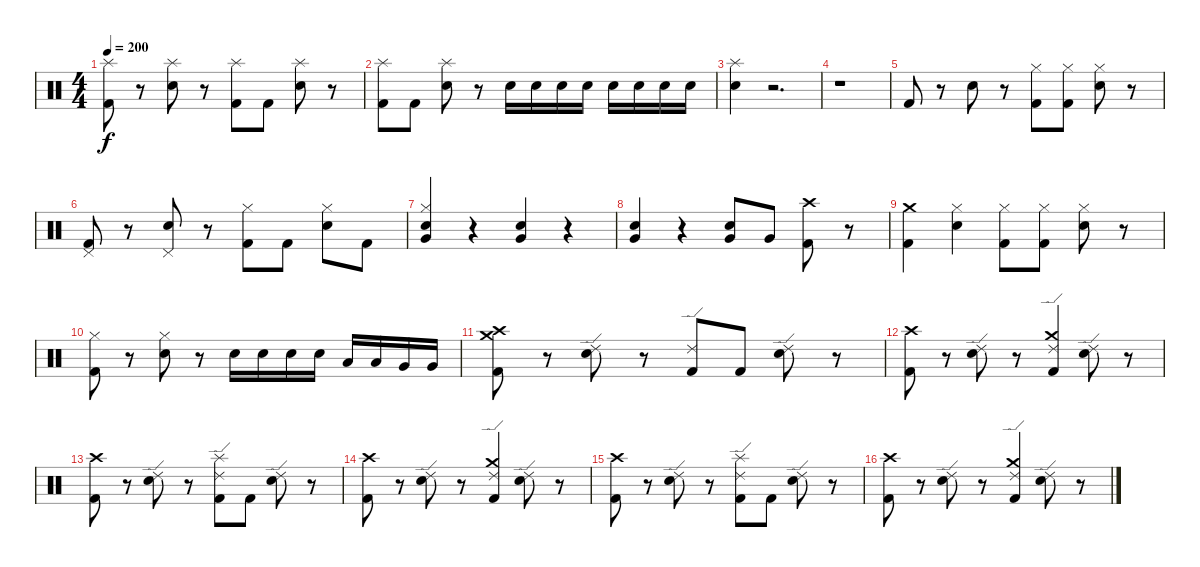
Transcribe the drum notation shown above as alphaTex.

\track "" {instrument percussion}
\staff {score}
\articulation defaults
\ts (4 4)
\tempo 200
\clef neutral
\ks c
("Splash (hit)" "Kick (hit) 2").8{dy f} r.8 ("Splash (hit)" "Electric Snare (hit)").8 r.8 ("Splash (hit)" "Kick (hit) 2").8 "Kick (hit) 2".8 ("Splash (hit)" "Electric Snare (hit)").8 r.8 |
("Splash (hit)" "Kick (hit) 2").8 "Kick (hit) 2".8 ("Splash (hit)" "Electric Snare (hit)").8 r.8 "Electric Snare (hit)".16 "Electric Snare (hit)".16 "Electric Snare (hit)".16 "Electric Snare (hit)".16 "Electric Snare (hit)".16 "Electric Snare (hit)".16 "Electric Snare (hit)".16 "Electric Snare (hit)".16 |
("Splash (hit)" "Electric Snare (hit)").4 r.2{d} |
r.1 |
"Kick (hit) 2".8 r.8 "Electric Snare (hit)".8 r.8 ("Hi-Hat (closed)" "Kick (hit) 2").8 ("Hi-Hat (closed)" "Kick (hit) 2").8 ("Hi-Hat (closed)" "Electric Snare (hit)").8 r.8 |
("Pedal Hi-Hat (hit)" "Kick (hit) 2").8 r.8 ("Pedal Hi-Hat (hit)" "Electric Snare (hit)").8 r.8 ("Hi-Hat (closed)" "Kick (hit) 2").8 "Kick (hit) 2".8 ("Hi-Hat (closed)" "Electric Snare (hit)").8 "Kick (hit) 2".8 |
("Very Low Tom (hit)" "Hi-Hat (closed)" "Electric Snare (hit)").4 r.4 ("Very Low Tom (hit)" "Electric Snare (hit)").4 r.4 |
("Very Low Tom (hit)" "Electric Snare (hit)").4 r.4 ("Very Low Tom (hit)" "Electric Snare (hit)").8 "Very Low Tom (hit)".8 ("Crash high (hit)" "Kick (hit) 2").8 r.8 |
("Crash medium (hit)" "Kick (hit) 2").4 ("Hi-Hat (closed)" "Electric Snare (hit)").4 ("Hi-Hat (closed)" "Kick (hit) 2").8 ("Hi-Hat (closed)" "Kick (hit) 2").8 ("Hi-Hat (closed)" "Electric Snare (hit)").8 r.8 |
("Hi-Hat (closed)" "Kick (hit) 2").8 r.8 ("Hi-Hat (closed)" "Electric Snare (hit)").8 r.8 "Electric Snare (hit)".16 "Electric Snare (hit)".16 "Electric Snare (hit)".16 "Electric Snare (hit)".16 "Low Tom (hit)".16 "Low Tom (hit)".16 "Very Low Tom (hit)".16 "Very Low Tom (hit)".16 |
("Crash medium (hit)" "Crash high (hit)" "Kick (hit) 2").8 r.8 ("Ride (edge) 2" "Electric Snare (hit)").8 r.8 ("Ride (edge) 2" "Kick (hit) 2").8 "Kick (hit) 2".8 ("Ride (edge) 2" "Electric Snare (hit)").8 r.8 |
("Crash high (hit)" "Kick (hit) 2").8 r.8 ("Ride (edge) 2" "Electric Snare (hit)").8 r.8 ("Crash medium (hit)" "Ride (edge) 2" "Kick (hit) 2").4 ("Ride (edge) 2" "Electric Snare (hit)").8 r.8 |
("Crash high (hit)" "Kick (hit) 2").8 r.8 ("Ride (edge) 2" "Electric Snare (hit)").8 r.8 ("Splash (hit)" "Ride (edge) 2" "Kick (hit) 2").8 "Kick (hit) 2".8 ("Ride (edge) 2" "Electric Snare (hit)").8 r.8 |
("Crash high (hit)" "Kick (hit) 2").8 r.8 ("Ride (edge) 2" "Electric Snare (hit)").8 r.8 ("Crash medium (hit)" "Ride (edge) 2" "Kick (hit) 2").4 ("Ride (edge) 2" "Electric Snare (hit)").8 r.8 |
("Crash high (hit)" "Kick (hit) 2").8 r.8 ("Ride (edge) 2" "Electric Snare (hit)").8 r.8 ("Splash (hit)" "Ride (edge) 2" "Kick (hit) 2").8 "Kick (hit) 2".8 ("Ride (edge) 2" "Electric Snare (hit)").8 r.8 |
("Crash high (hit)" "Kick (hit) 2").8 r.8 ("Ride (edge) 2" "Electric Snare (hit)").8 r.8 ("Crash medium (hit)" "Ride (edge) 2" "Kick (hit) 2").4 ("Ride (edge) 2" "Electric Snare (hit)").8 r.8
